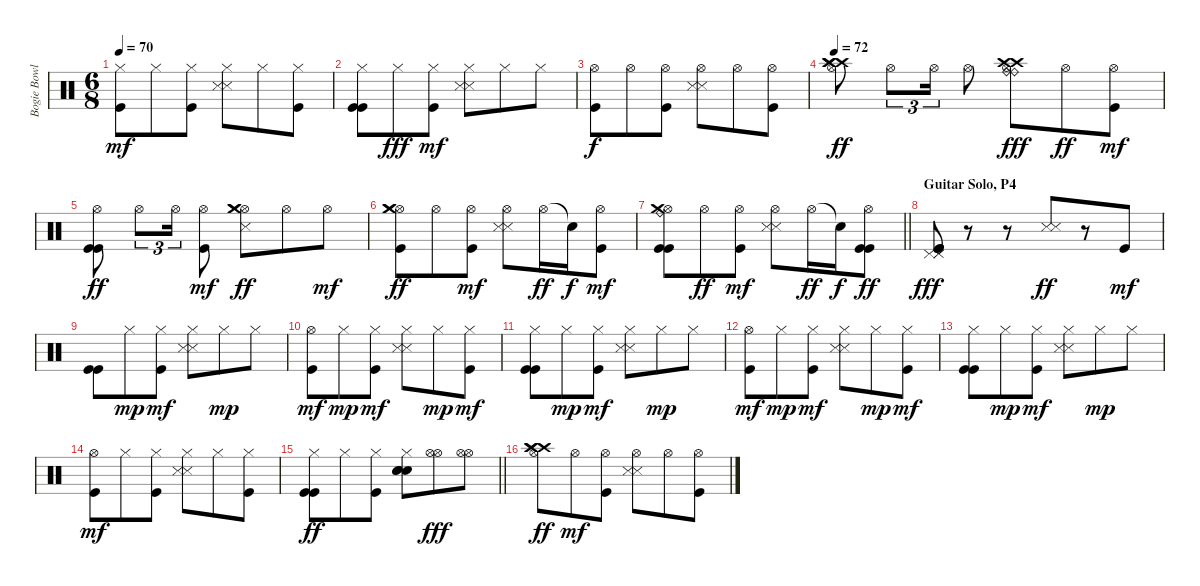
\track ("Bogie Bowles" "Bogie Bowl") {instrument percussion}
\staff {score}
\articulation defaults
\ts (6 8)
\tempo 70
\clef neutral
\ks c
("Hi-Hat (closed)" "Kick (hit)").8{dy mf} "Hi-Hat (closed)".8 ("Hi-Hat (closed)" "Kick (hit)").8 ("Hi-Hat (closed)" "Snare (side stick) 3" "Snare (side stick) 3").8 "Hi-Hat (closed)".8 ("Hi-Hat (closed)" "Kick (hit)").8 |
("Hi-Hat (closed)" "Kick (hit)" "Kick (hit)").8 "Hi-Hat (closed)".8{dy fff} ("Hi-Hat (closed)" "Kick (hit)").8{dy mf} ("Hi-Hat (closed)" "Snare (side stick) 3" "Snare (side stick) 3").8 "Hi-Hat (closed)".8 "Hi-Hat (closed)".8 |
("Hi-Hat (open)" "Kick (hit)").8{dy f} "Hi-Hat (open)".8 ("Hi-Hat (open)" "Kick (hit)").8 ("Hi-Hat (open)" "Snare (side stick) 3" "Snare (side stick) 3").8 "Hi-Hat (open)".8 ("Hi-Hat (open)" "Kick (hit)").8 |
\tempo 72
("Hi-Hat (open)" "Crash high (hit)" "Crash high (hit)" "Crash high (hit)").8{dy ff volume 16} "Hi-Hat (open)".8{tu (3 2)} "Hi-Hat (open)".16{tu (3 2)} "Hi-Hat (open)".8 ("Hi-Hat (open)" "Crash high (hit)" "Crash high (hit)" "Ride (bell)" "Ride (bell)").8{dy fff} "Hi-Hat (open)".8{dy ff} ("Hi-Hat (open)" "Kick (hit)").8{dy mf} |
("Hi-Hat (open)" "Kick (hit)" "Kick (hit)").8{dy ff} "Hi-Hat (open)".8{tu (3 2)} "Hi-Hat (open)".16{tu (3 2)} ("Hi-Hat (open)" "Kick (hit)").8{dy mf} ("Hi-Hat (open)" "Snare (side stick) 3" "Crash medium (hit)" "Crash medium (hit)").8{dy ff} "Hi-Hat (open)".8 "Hi-Hat (open)".8{dy mf} |
("Hi-Hat (open)" "Crash medium (hit)" "Crash medium (hit)" "Kick (hit)").8{dy ff} "Hi-Hat (open)".8 ("Hi-Hat (open)" "Kick (hit)").8{dy mf} ("Hi-Hat (open)" "Snare (side stick) 3" "Snare (side stick) 3").8 "Hi-Hat (open)".16{dy ff} "Snare (hit)"{t}.16{dy f} ("Hi-Hat (open)" "Kick (hit)").8{dy mf} |
\barLineRight lightlight
("Hi-Hat (open)" "Crash medium (hit)" "Kick (hit)" "Kick (hit)" "Ride (bell)").8 "Hi-Hat (open)".8{dy ff} ("Hi-Hat (open)" "Kick (hit)").8{dy mf} ("Hi-Hat (open)" "Snare (side stick) 3" "Snare (side stick) 3").8 "Hi-Hat (open)".16{dy ff} "Snare (hit)"{t}.16{dy f} ("Hi-Hat (open)" "Kick (hit)" "Kick (hit)").8{dy ff} |
\section ("" "Guitar Solo, P4")
("Pedal Hi-Hat (hit)" "Pedal Hi-Hat (hit)" "Pedal Hi-Hat (hit)" "Kick (hit)" "Kick (hit)").8{dy fff} r.8{volume 10} r.8 ("Snare (side stick) 3" "Snare (side stick) 3").8{dy ff} r.8 "Kick (hit)".8{dy mf} |
("Kick (hit)" "Kick (hit)").8 "Hi-Hat (closed)".8{dy mp} ("Hi-Hat (closed)" "Kick (hit)").8{dy mf} ("Hi-Hat (closed)" "Snare (side stick) 3" "Snare (side stick) 3").8 "Hi-Hat (closed)".8{dy mp} "Hi-Hat (closed)".8 |
("Hi-Hat (open)" "Kick (hit)").8{dy mf} "Hi-Hat (closed)".8{dy mp} ("Hi-Hat (closed)" "Kick (hit)").8{dy mf} ("Hi-Hat (closed)" "Snare (side stick) 3" "Snare (side stick) 3").8 "Hi-Hat (closed)".8{dy mp} ("Hi-Hat (closed)" "Kick (hit)").8{dy mf} |
("Hi-Hat (closed)" "Kick (hit)" "Kick (hit)").8 "Hi-Hat (closed)".8{dy mp} ("Hi-Hat (closed)" "Kick (hit)").8{dy mf} ("Hi-Hat (closed)" "Snare (side stick) 3" "Snare (side stick) 3").8 "Hi-Hat (closed)".8{dy mp} "Hi-Hat (closed)".8 |
("Hi-Hat (open)" "Kick (hit)").8{dy mf} "Hi-Hat (closed)".8{dy mp} ("Hi-Hat (closed)" "Kick (hit)").8{dy mf} ("Hi-Hat (closed)" "Snare (side stick) 3" "Snare (side stick) 3").8 "Hi-Hat (closed)".8{dy mp} ("Hi-Hat (closed)" "Kick (hit)").8{dy mf} |
("Hi-Hat (closed)" "Kick (hit)" "Kick (hit)").8 "Hi-Hat (closed)".8{dy mp} ("Hi-Hat (closed)" "Kick (hit)").8{dy mf} ("Hi-Hat (closed)" "Snare (side stick) 3" "Snare (side stick) 3").8 "Hi-Hat (closed)".8{dy mp} "Hi-Hat (closed)".8 |
("Hi-Hat (open)" "Kick (hit)").8{dy mf} "Hi-Hat (closed)".8 ("Hi-Hat (closed)" "Kick (hit)").8 ("Hi-Hat (closed)" "Snare (side stick) 3" "Snare (side stick) 3").8 "Hi-Hat (closed)".8 ("Hi-Hat (closed)" "Kick (hit)").8 |
\barLineRight lightlight
("Hi-Hat (closed)" "Kick (hit)" "Kick (hit)").8{dy ff} "Hi-Hat (closed)".8 ("Hi-Hat (closed)" "Kick (hit)").8 ("Hi-Hat (closed)" "Snare (hit) 2" "Snare (hit) 2" "Snare (hit) 2").8 ("Hi-Hat (open)" "Hi-Hat (open)").8{dy fff} ("Hi-Hat (open)" "Hi-Hat (open)").8 |
("Hi-Hat (open)" "Crash high (hit)" "Crash high (hit)" "Crash high (hit)").8{dy ff volume 16} "Hi-Hat (open)".8{dy mf} ("Hi-Hat (open)" "Kick (hit)").8 ("Hi-Hat (open)" "Snare (side stick) 3" "Snare (side stick) 3").8 "Hi-Hat (open)".8 ("Hi-Hat (open)" "Kick (hit)").8
